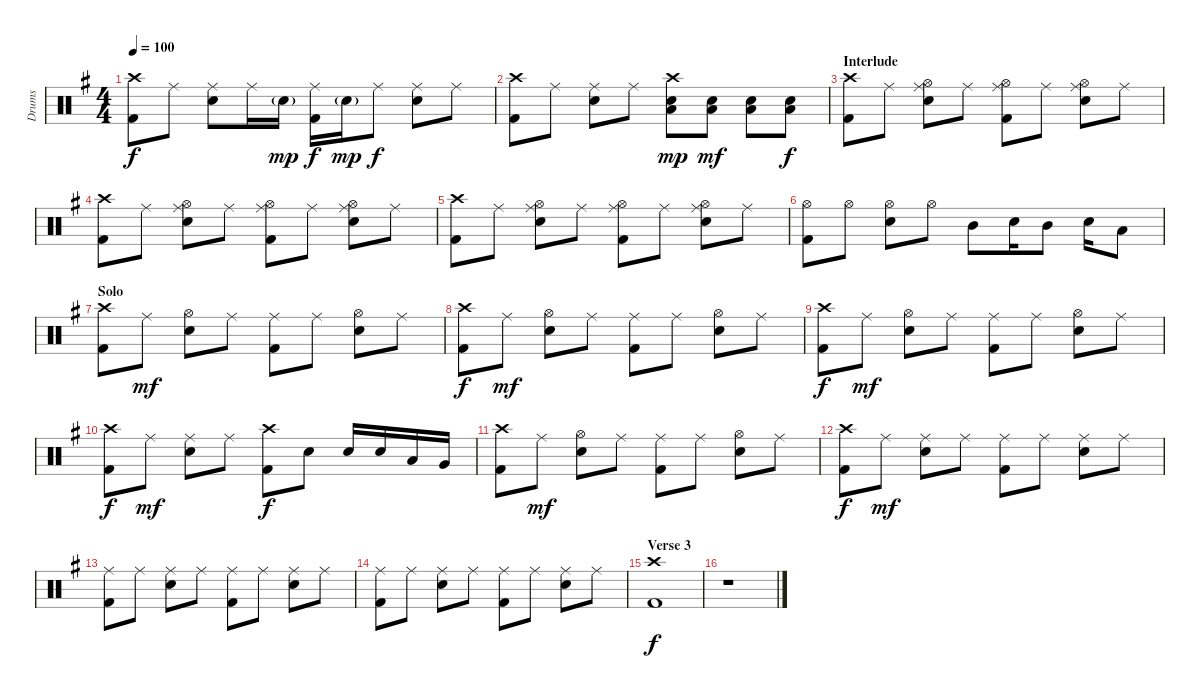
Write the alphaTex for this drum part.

\track ("Drums" "Drums") {instrument percussion}
\staff {score}
\articulation defaults
\ts (4 4)
\tempo 100
\clef neutral
\ks g
("Crash high (hit)" "Kick (hit) 2").8{dy f} "Ride (middle)".8 ("Ride (middle)" "Snare (hit) 2").8 "Ride (middle)".16 "Snare (hit) 2"{g}.16{dy mp} ("Ride (middle)" "Kick (hit) 2").16{dy f} "Snare (hit) 2"{g}.16{dy mp} "Ride (middle)".8{dy f} ("Ride (middle)" "Snare (hit) 2").8 "Ride (middle)".8 |
("Crash high (hit)" "Kick (hit) 2").8 "Ride (middle)".8 ("Ride (middle)" "Snare (hit) 2").8 "Ride (middle)".8 ("Crash high (hit)" "Snare (hit) 2" "Low Tom (hit)").8{dy mp} ("Snare (hit) 2" "Low Tom (hit)").8{dy mf} ("Snare (hit) 2" "Low Tom (hit)").8 ("Snare (hit) 2" "Low Tom (hit)").8{dy f} |
\section ("" "Interlude")
("Crash high (hit)" "Kick (hit) 2").8 "Ride (middle)".8 ("Hi-Hat (open)" "Ride (middle)" "Snare (hit) 2").8 "Ride (middle)".8 ("Hi-Hat (open)" "Ride (middle)" "Kick (hit) 2").8 "Ride (middle)".8 ("Hi-Hat (open)" "Ride (middle)" "Snare (hit) 2").8 "Ride (middle)".8 |
("Crash high (hit)" "Kick (hit) 2").8 "Ride (middle)".8 ("Hi-Hat (open)" "Ride (middle)" "Snare (hit) 2").8 "Ride (middle)".8 ("Hi-Hat (open)" "Ride (middle)" "Kick (hit) 2").8 "Ride (middle)".8 ("Hi-Hat (open)" "Ride (middle)" "Snare (hit) 2").8 "Ride (middle)".8 |
("Crash high (hit)" "Kick (hit) 2").8 "Ride (middle)".8 ("Hi-Hat (open)" "Ride (middle)" "Snare (hit) 2").8 "Ride (middle)".8 ("Hi-Hat (open)" "Ride (middle)" "Kick (hit) 2").8 "Ride (middle)".8 ("Hi-Hat (open)" "Ride (middle)" "Snare (hit) 2").8 "Ride (middle)".8 |
("Hi-Hat (open)" "Kick (hit) 2").8 "Hi-Hat (open)".8 ("Hi-Hat (open)" "Snare (hit) 2").8 "Hi-Hat (open)".8 "Mid Tom (hit)".8 "Snare (hit) 2".16 "Mid Tom (hit)".8 "Snare (hit) 2".16 "Low Tom (hit)".8 |
\section ("" "Solo")
("Crash high (hit)" "Kick (hit) 2").8 "Ride (middle)".8{dy mf} ("Hi-Hat (open)" "Snare (hit) 2").8 "Ride (middle)".8 ("Ride (middle)" "Kick (hit) 2").8 "Ride (middle)".8 ("Hi-Hat (open)" "Snare (hit) 2").8 "Ride (middle)".8 |
("Crash high (hit)" "Kick (hit) 2").8{dy f} "Ride (middle)".8{dy mf} ("Hi-Hat (open)" "Snare (hit) 2").8 "Ride (middle)".8 ("Ride (middle)" "Kick (hit) 2").8 "Ride (middle)".8 ("Hi-Hat (open)" "Snare (hit) 2").8 "Ride (middle)".8 |
("Crash high (hit)" "Kick (hit) 2").8{dy f} "Ride (middle)".8{dy mf} ("Hi-Hat (open)" "Snare (hit) 2").8 "Ride (middle)".8 ("Ride (middle)" "Kick (hit) 2").8 "Ride (middle)".8 ("Hi-Hat (open)" "Snare (hit) 2").8 "Ride (middle)".8 |
("Crash high (hit)" "Kick (hit) 2").8{dy f} "Ride (middle)".8{dy mf} ("Ride (middle)" "Snare (hit) 2").8 "Ride (middle)".8 ("Crash high (hit)" "Kick (hit) 2").8{dy f} "Snare (hit) 2".8 "Snare (hit) 2".16 "Snare (hit) 2".16 "Low Tom (hit)".16 "Very Low Tom (hit)".16 |
("Crash high (hit)" "Kick (hit) 2").8 "Ride (middle)".8{dy mf} ("Hi-Hat (open)" "Snare (hit) 2").8 "Ride (middle)".8 ("Ride (middle)" "Kick (hit) 2").8 "Ride (middle)".8 ("Hi-Hat (open)" "Snare (hit) 2").8 "Ride (middle)".8 |
("Crash high (hit)" "Kick (hit) 2").8{dy f} "Ride (middle)".8{dy mf} ("Ride (middle)" "Snare (hit) 2").8 "Ride (middle)".8 ("Ride (middle)" "Kick (hit) 2").8 "Ride (middle)".8 ("Ride (middle)" "Snare (hit) 2").8 "Ride (middle)".8 |
("Ride (middle)" "Kick (hit) 2").8 "Ride (middle)".8 ("Ride (middle)" "Snare (hit) 2").8 "Ride (middle)".8 ("Ride (middle)" "Kick (hit) 2").8 "Ride (middle)".8 ("Ride (middle)" "Snare (hit) 2").8 "Ride (middle)".8 |
("Ride (middle)" "Kick (hit) 2").8 "Ride (middle)".8 ("Ride (middle)" "Snare (hit) 2").8 "Ride (middle)".8 ("Ride (middle)" "Kick (hit) 2").8 "Ride (middle)".8 ("Ride (middle)" "Snare (hit) 2").8 "Ride (middle)".8 |
\section ("" "Verse 3")
("Crash high (hit)" "Kick (hit) 2").1{dy f} |
r.1
